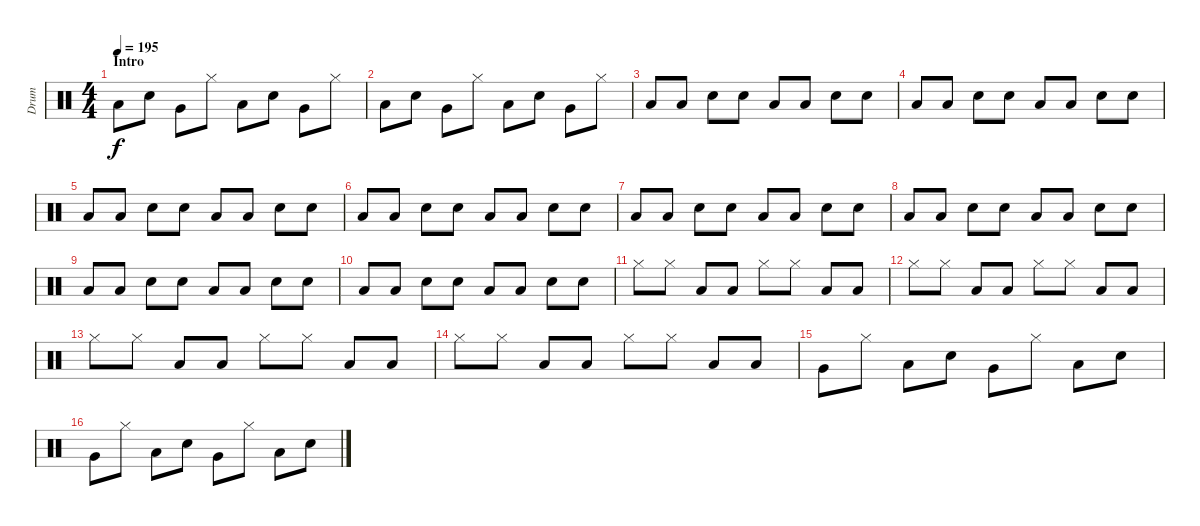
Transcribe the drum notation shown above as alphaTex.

\track ("Drum" "Drum") {instrument percussion}
\staff {score}
\articulation defaults
\ts (4 4)
\section ("" "Intro")
\tempo 195
\clef neutral
\ks c "Low Floor Tom (hit)".8{dy f} "Electric Snare (hit)".8 "Very Low Tom (hit)".8 "Hi-Hat (closed)".8 "Low Floor Tom (hit)".8 "Electric Snare (hit)".8 "Very Low Tom (hit)".8 "Hi-Hat (closed)".8
|
"Low Floor Tom (hit)".8 "Electric Snare (hit)".8 "Very Low Tom (hit)".8 "Hi-Hat (closed)".8 "Low Floor Tom (hit)".8 "Electric Snare (hit)".8 "Very Low Tom (hit)".8 "Hi-Hat (closed)".8 |
"Low Floor Tom (hit)".8 "Low Floor Tom (hit)".8 "Electric Snare (hit)".8 "Electric Snare (hit)".8 "Low Floor Tom (hit)".8 "Low Floor Tom (hit)".8 "Electric Snare (hit)".8 "Electric Snare (hit)".8 |
"Low Floor Tom (hit)".8 "Low Floor Tom (hit)".8 "Electric Snare (hit)".8 "Electric Snare (hit)".8 "Low Floor Tom (hit)".8 "Low Floor Tom (hit)".8 "Electric Snare (hit)".8 "Electric Snare (hit)".8 |
"Low Floor Tom (hit)".8 "Low Floor Tom (hit)".8 "Electric Snare (hit)".8 "Electric Snare (hit)".8 "Low Floor Tom (hit)".8 "Low Floor Tom (hit)".8 "Electric Snare (hit)".8 "Electric Snare (hit)".8 |
"Low Floor Tom (hit)".8 "Low Floor Tom (hit)".8 "Electric Snare (hit)".8 "Electric Snare (hit)".8 "Low Floor Tom (hit)".8 "Low Floor Tom (hit)".8 "Electric Snare (hit)".8 "Electric Snare (hit)".8 |
"Low Floor Tom (hit)".8 "Low Floor Tom (hit)".8 "Electric Snare (hit)".8 "Electric Snare (hit)".8 "Low Floor Tom (hit)".8 "Low Floor Tom (hit)".8 "Electric Snare (hit)".8 "Electric Snare (hit)".8 |
"Low Floor Tom (hit)".8 "Low Floor Tom (hit)".8 "Electric Snare (hit)".8 "Electric Snare (hit)".8 "Low Floor Tom (hit)".8 "Low Floor Tom (hit)".8 "Electric Snare (hit)".8 "Electric Snare (hit)".8 |
"Low Floor Tom (hit)".8 "Low Floor Tom (hit)".8 "Electric Snare (hit)".8 "Electric Snare (hit)".8 "Low Floor Tom (hit)".8 "Low Floor Tom (hit)".8 "Electric Snare (hit)".8 "Electric Snare (hit)".8 |
"Low Floor Tom (hit)".8 "Low Floor Tom (hit)".8 "Electric Snare (hit)".8 "Electric Snare (hit)".8 "Low Floor Tom (hit)".8 "Low Floor Tom (hit)".8 "Electric Snare (hit)".8 "Electric Snare (hit)".8 |
"Hi-Hat (closed)".8 "Hi-Hat (closed)".8 "Low Floor Tom (hit)".8 "Low Floor Tom (hit)".8 "Hi-Hat (closed)".8 "Hi-Hat (closed)".8 "Low Floor Tom (hit)".8 "Low Floor Tom (hit)".8 |
"Hi-Hat (closed)".8 "Hi-Hat (closed)".8 "Low Floor Tom (hit)".8 "Low Floor Tom (hit)".8 "Hi-Hat (closed)".8 "Hi-Hat (closed)".8 "Low Floor Tom (hit)".8 "Low Floor Tom (hit)".8 |
"Hi-Hat (closed)".8 "Hi-Hat (closed)".8 "Low Floor Tom (hit)".8 "Low Floor Tom (hit)".8 "Hi-Hat (closed)".8 "Hi-Hat (closed)".8 "Low Floor Tom (hit)".8 "Low Floor Tom (hit)".8 |
"Hi-Hat (closed)".8 "Hi-Hat (closed)".8 "Low Floor Tom (hit)".8 "Low Floor Tom (hit)".8 "Hi-Hat (closed)".8 "Hi-Hat (closed)".8 "Low Floor Tom (hit)".8 "Low Floor Tom (hit)".8 |
"Very Low Tom (hit)".8 "Hi-Hat (closed)".8 "Low Floor Tom (hit)".8 "Electric Snare (hit)".8 "Very Low Tom (hit)".8 "Hi-Hat (closed)".8 "Low Floor Tom (hit)".8 "Electric Snare (hit)".8 |
"Very Low Tom (hit)".8 "Hi-Hat (closed)".8 "Low Floor Tom (hit)".8 "Electric Snare (hit)".8 "Very Low Tom (hit)".8 "Hi-Hat (closed)".8 "Low Floor Tom (hit)".8 "Electric Snare (hit)".8
